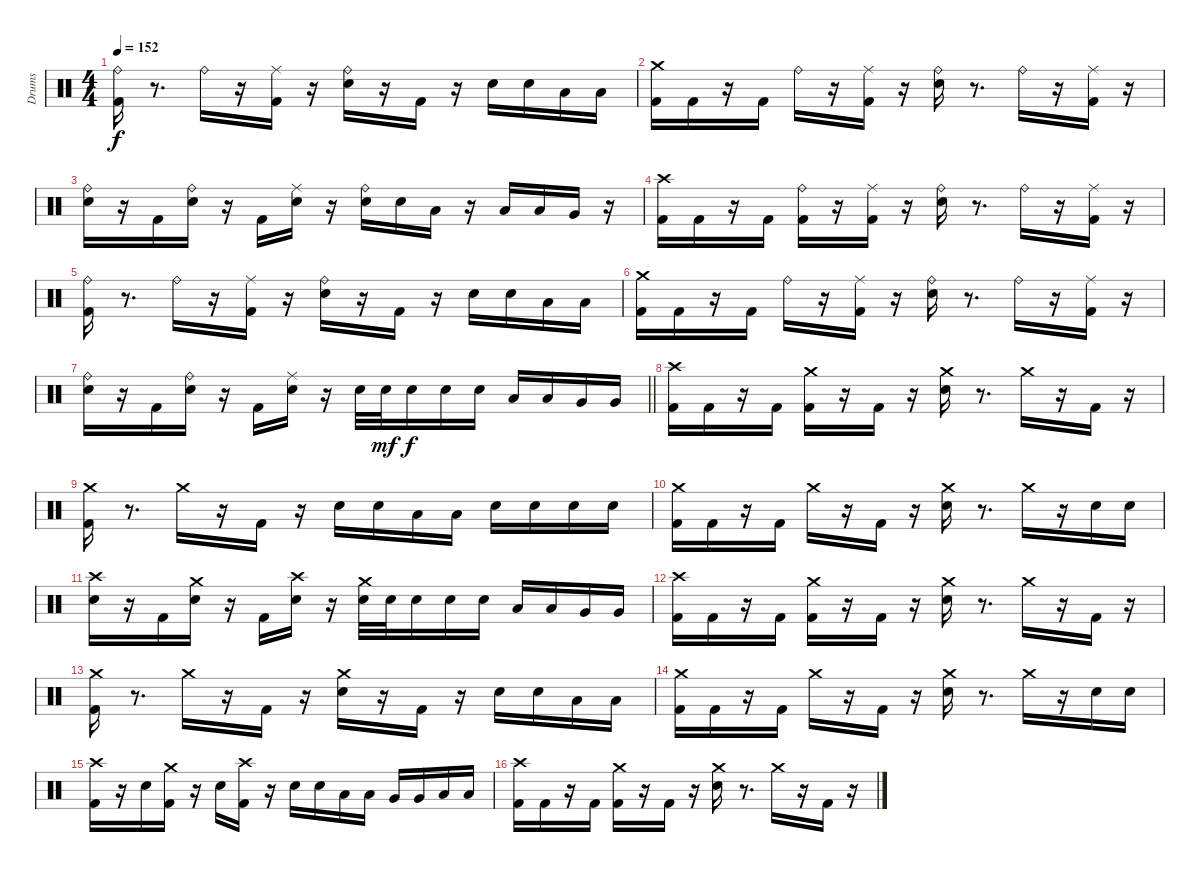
\track ("Drums" "Drums") {instrument percussion}
\staff {score}
\articulation defaults
\ts (4 4)
\tempo 152
\clef neutral
\ks c
("Kick (hit) 2" "Ride (bell)").16{dy f} r.8{d} "Ride (bell)".16 r.16 ("Kick (hit) 2" "Ride (middle)").16 r.16 ("Snare (hit) 2" "Ride (bell)").16 r.16 "Kick (hit) 2".16 r.16 "Snare (hit) 2".16 "Snare (hit) 2".16 "Low Tom (hit)".16 "Low Tom (hit)".16 |
("Kick (hit) 2" "Crash medium (hit)").16 "Kick (hit) 2".16 r.16 "Kick (hit) 2".16 "Ride (bell)".16 r.16 ("Kick (hit) 2" "Ride (middle)").16 r.16 ("Snare (hit) 2" "Ride (bell)").16 r.8{d} "Ride (bell)".16 r.16 ("Kick (hit) 2" "Ride (middle)").16 r.16 |
("Snare (hit) 2" "Ride (bell)").16 r.16 "Kick (hit) 2".16 ("Snare (hit) 2" "Ride (bell)").16 r.16 "Kick (hit) 2".16 ("Snare (hit) 2" "Ride (middle)").16 r.16 ("Snare (hit) 2" "Ride (bell)").16 "Snare (hit) 2".16 "Low Tom (hit)".16 r.16 "Low Tom (hit)".16 "Low Tom (hit)".16 "Very Low Tom (hit)".16 r.16 |
("Kick (hit) 2" "Crash high (hit)").16 "Kick (hit) 2".16 r.16 "Kick (hit) 2".16 ("Kick (hit) 2" "Ride (bell)").16 r.16 ("Kick (hit) 2" "Ride (middle)").16 r.16 ("Snare (hit) 2" "Ride (bell)").16 r.8{d} "Ride (bell)".16 r.16 ("Kick (hit) 2" "Ride (middle)").16 r.16 |
("Kick (hit) 2" "Ride (bell)").16 r.8{d} "Ride (bell)".16 r.16 ("Kick (hit) 2" "Ride (middle)").16 r.16 ("Snare (hit) 2" "Ride (bell)").16 r.16 "Kick (hit) 2".16 r.16 "Snare (hit) 2".16 "Snare (hit) 2".16 "Low Tom (hit)".16 "Low Tom (hit)".16 |
("Kick (hit) 2" "Crash medium (hit)").16 "Kick (hit) 2".16 r.16 "Kick (hit) 2".16 "Ride (bell)".16 r.16 ("Kick (hit) 2" "Ride (middle)").16 r.16 ("Snare (hit) 2" "Ride (bell)").16 r.8{d} "Ride (bell)".16 r.16 ("Kick (hit) 2" "Ride (middle)").16 r.16 |
\barLineRight lightlight
("Snare (hit) 2" "Ride (bell)").16 r.16 "Kick (hit) 2".16 ("Snare (hit) 2" "Ride (bell)").16 r.16 "Kick (hit) 2".16 ("Snare (hit) 2" "Ride (middle)").16 r.16 "Snare (hit) 2".32 "Snare (hit) 2".32{dy mf} "Snare (hit) 2".16{dy f} "Snare (hit) 2".16 "Snare (hit) 2".16 "Low Tom (hit)".16 "Low Tom (hit)".16 "Very Low Tom (hit)".16 "Very Low Tom (hit)".16 |
\section ("" " ")
("Kick (hit) 2" "Crash high (hit)").16 "Kick (hit) 2".16 r.16 "Kick (hit) 2".16 ("Kick (hit) 2" "Crash medium (hit)").16 r.16 "Kick (hit) 2".16 r.16 ("Snare (hit) 2" "Crash medium (hit)").16 r.8{d} "Crash medium (hit)".16 r.16 "Kick (hit) 2".16 r.16 |
("Kick (hit) 2" "Crash medium (hit)").16 r.8{d} "Crash medium (hit)".16 r.16 "Kick (hit) 2".16 r.16 "Snare (hit) 2".16 "Snare (hit) 2".16 "Low Tom (hit)".16 "Low Tom (hit)".16 "Snare (hit) 2".16 "Snare (hit) 2".16 "Snare (hit) 2".16 "Snare (hit) 2".16 |
("Kick (hit) 2" "Crash medium (hit)").16 "Kick (hit) 2".16 r.16 "Kick (hit) 2".16 "Crash medium (hit)".16 r.16 "Kick (hit) 2".16 r.16 ("Snare (hit) 2" "Crash medium (hit)").16 r.8{d} "Crash medium (hit)".16 r.16 "Snare (hit) 2".16 "Snare (hit) 2".16 |
("Snare (hit) 2" "Crash high (hit)").16 r.16 "Kick (hit) 2".16 ("Snare (hit) 2" "Crash medium (hit)").16 r.16 "Kick (hit) 2".16 ("Snare (hit) 2" "Crash high (hit)").16 r.16 ("Snare (hit) 2" "Crash medium (hit)").32 "Snare (hit) 2".32 "Snare (hit) 2".16 "Snare (hit) 2".16 "Snare (hit) 2".16 "Low Tom (hit)".16 "Low Tom (hit)".16 "Very Low Tom (hit)".16 "Very Low Tom (hit)".16 |
("Kick (hit) 2" "Crash high (hit)").16 "Kick (hit) 2".16 r.16 "Kick (hit) 2".16 ("Kick (hit) 2" "Crash medium (hit)").16 r.16 "Kick (hit) 2".16 r.16 ("Snare (hit) 2" "Crash medium (hit)").16 r.8{d} "Crash medium (hit)".16 r.16 "Kick (hit) 2".16 r.16 |
("Kick (hit) 2" "Crash medium (hit)").16 r.8{d} "Crash medium (hit)".16 r.16 "Kick (hit) 2".16 r.16 ("Snare (hit) 2" "Crash medium (hit)").16 r.16 "Kick (hit) 2".16 r.16 "Snare (hit) 2".16 "Snare (hit) 2".16 "Low Tom (hit)".16 "Low Tom (hit)".16 |
("Kick (hit) 2" "Crash medium (hit)").16 "Kick (hit) 2".16 r.16 "Kick (hit) 2".16 "Crash medium (hit)".16 r.16 "Kick (hit) 2".16 r.16 ("Snare (hit) 2" "Crash medium (hit)").16 r.8{d} "Crash medium (hit)".16 r.16 "Snare (hit) 2".16 "Snare (hit) 2".16 |
("Kick (hit) 2" "Crash high (hit)").16 r.16 "Snare (hit) 2".16 ("Kick (hit) 2" "Crash medium (hit)").16 r.16 "Snare (hit) 2".16 ("Kick (hit) 2" "Crash high (hit)").16 r.16 "Snare (hit) 2".16 "Snare (hit) 2".16 "Low Tom (hit)".16 "Low Tom (hit)".16 "Very Low Tom (hit)".16 "Very Low Tom (hit)".16 "Low Floor Tom (hit)".16 "Low Floor Tom (hit)".16 |
("Kick (hit) 2" "Crash high (hit)").16 "Kick (hit) 2".16 r.16 "Kick (hit) 2".16 ("Kick (hit) 2" "Crash medium (hit)").16 r.16 "Kick (hit) 2".16 r.16 ("Snare (hit) 2" "Crash medium (hit)").16 r.8{d} "Crash medium (hit)".16 r.16 "Kick (hit) 2".16 r.16
